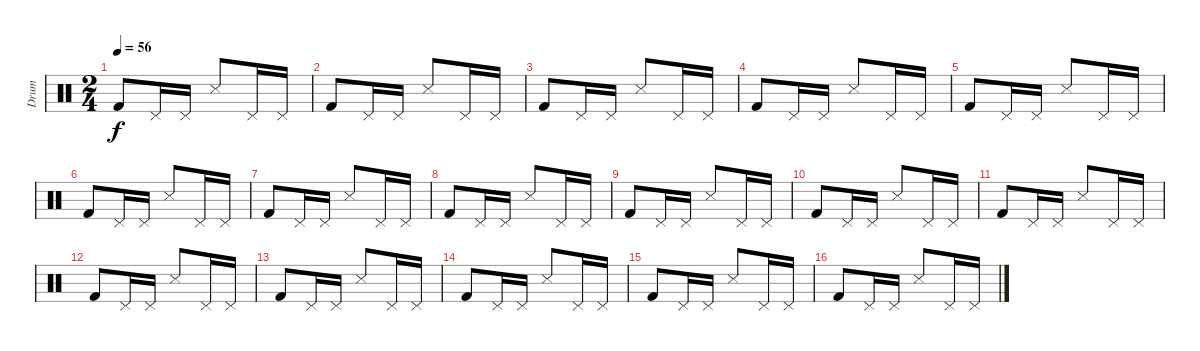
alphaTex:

\track ("Drum" "Drum") {instrument percussion}
\staff {score}
\articulation defaults
\ts (2 4)
\tempo 56
\clef neutral
\ks c "Kick (hit) 2".8{dy f} "Pedal Hi-Hat (hit)".16 "Pedal Hi-Hat (hit)".16 "Snare (side stick) 3".8 "Pedal Hi-Hat (hit)".16 "Pedal Hi-Hat (hit)".16
|
"Kick (hit) 2".8 "Pedal Hi-Hat (hit)".16 "Pedal Hi-Hat (hit)".16 "Snare (side stick) 3".8 "Pedal Hi-Hat (hit)".16 "Pedal Hi-Hat (hit)".16 |
"Kick (hit) 2".8 "Pedal Hi-Hat (hit)".16 "Pedal Hi-Hat (hit)".16 "Snare (side stick) 3".8 "Pedal Hi-Hat (hit)".16 "Pedal Hi-Hat (hit)".16 |
"Kick (hit) 2".8 "Pedal Hi-Hat (hit)".16 "Pedal Hi-Hat (hit)".16 "Snare (side stick) 3".8 "Pedal Hi-Hat (hit)".16 "Pedal Hi-Hat (hit)".16 |
"Kick (hit) 2".8 "Pedal Hi-Hat (hit)".16 "Pedal Hi-Hat (hit)".16 "Snare (side stick) 3".8 "Pedal Hi-Hat (hit)".16 "Pedal Hi-Hat (hit)".16 |
"Kick (hit) 2".8 "Pedal Hi-Hat (hit)".16 "Pedal Hi-Hat (hit)".16 "Snare (side stick) 3".8 "Pedal Hi-Hat (hit)".16 "Pedal Hi-Hat (hit)".16 |
"Kick (hit) 2".8 "Pedal Hi-Hat (hit)".16 "Pedal Hi-Hat (hit)".16 "Snare (side stick) 3".8 "Pedal Hi-Hat (hit)".16 "Pedal Hi-Hat (hit)".16 |
"Kick (hit) 2".8 "Pedal Hi-Hat (hit)".16 "Pedal Hi-Hat (hit)".16 "Snare (side stick) 3".8 "Pedal Hi-Hat (hit)".16 "Pedal Hi-Hat (hit)".16 |
"Kick (hit) 2".8 "Pedal Hi-Hat (hit)".16 "Pedal Hi-Hat (hit)".16 "Snare (side stick) 3".8 "Pedal Hi-Hat (hit)".16 "Pedal Hi-Hat (hit)".16 |
"Kick (hit) 2".8 "Pedal Hi-Hat (hit)".16 "Pedal Hi-Hat (hit)".16 "Snare (side stick) 3".8 "Pedal Hi-Hat (hit)".16 "Pedal Hi-Hat (hit)".16 |
"Kick (hit) 2".8 "Pedal Hi-Hat (hit)".16 "Pedal Hi-Hat (hit)".16 "Snare (side stick) 3".8 "Pedal Hi-Hat (hit)".16 "Pedal Hi-Hat (hit)".16 |
"Kick (hit) 2".8 "Pedal Hi-Hat (hit)".16 "Pedal Hi-Hat (hit)".16 "Snare (side stick) 3".8 "Pedal Hi-Hat (hit)".16 "Pedal Hi-Hat (hit)".16 |
"Kick (hit) 2".8 "Pedal Hi-Hat (hit)".16 "Pedal Hi-Hat (hit)".16 "Snare (side stick) 3".8 "Pedal Hi-Hat (hit)".16 "Pedal Hi-Hat (hit)".16 |
"Kick (hit) 2".8 "Pedal Hi-Hat (hit)".16 "Pedal Hi-Hat (hit)".16 "Snare (side stick) 3".8 "Pedal Hi-Hat (hit)".16 "Pedal Hi-Hat (hit)".16 |
"Kick (hit) 2".8 "Pedal Hi-Hat (hit)".16 "Pedal Hi-Hat (hit)".16 "Snare (side stick) 3".8 "Pedal Hi-Hat (hit)".16 "Pedal Hi-Hat (hit)".16 |
"Kick (hit) 2".8 "Pedal Hi-Hat (hit)".16 "Pedal Hi-Hat (hit)".16 "Snare (side stick) 3".8 "Pedal Hi-Hat (hit)".16 "Pedal Hi-Hat (hit)".16
